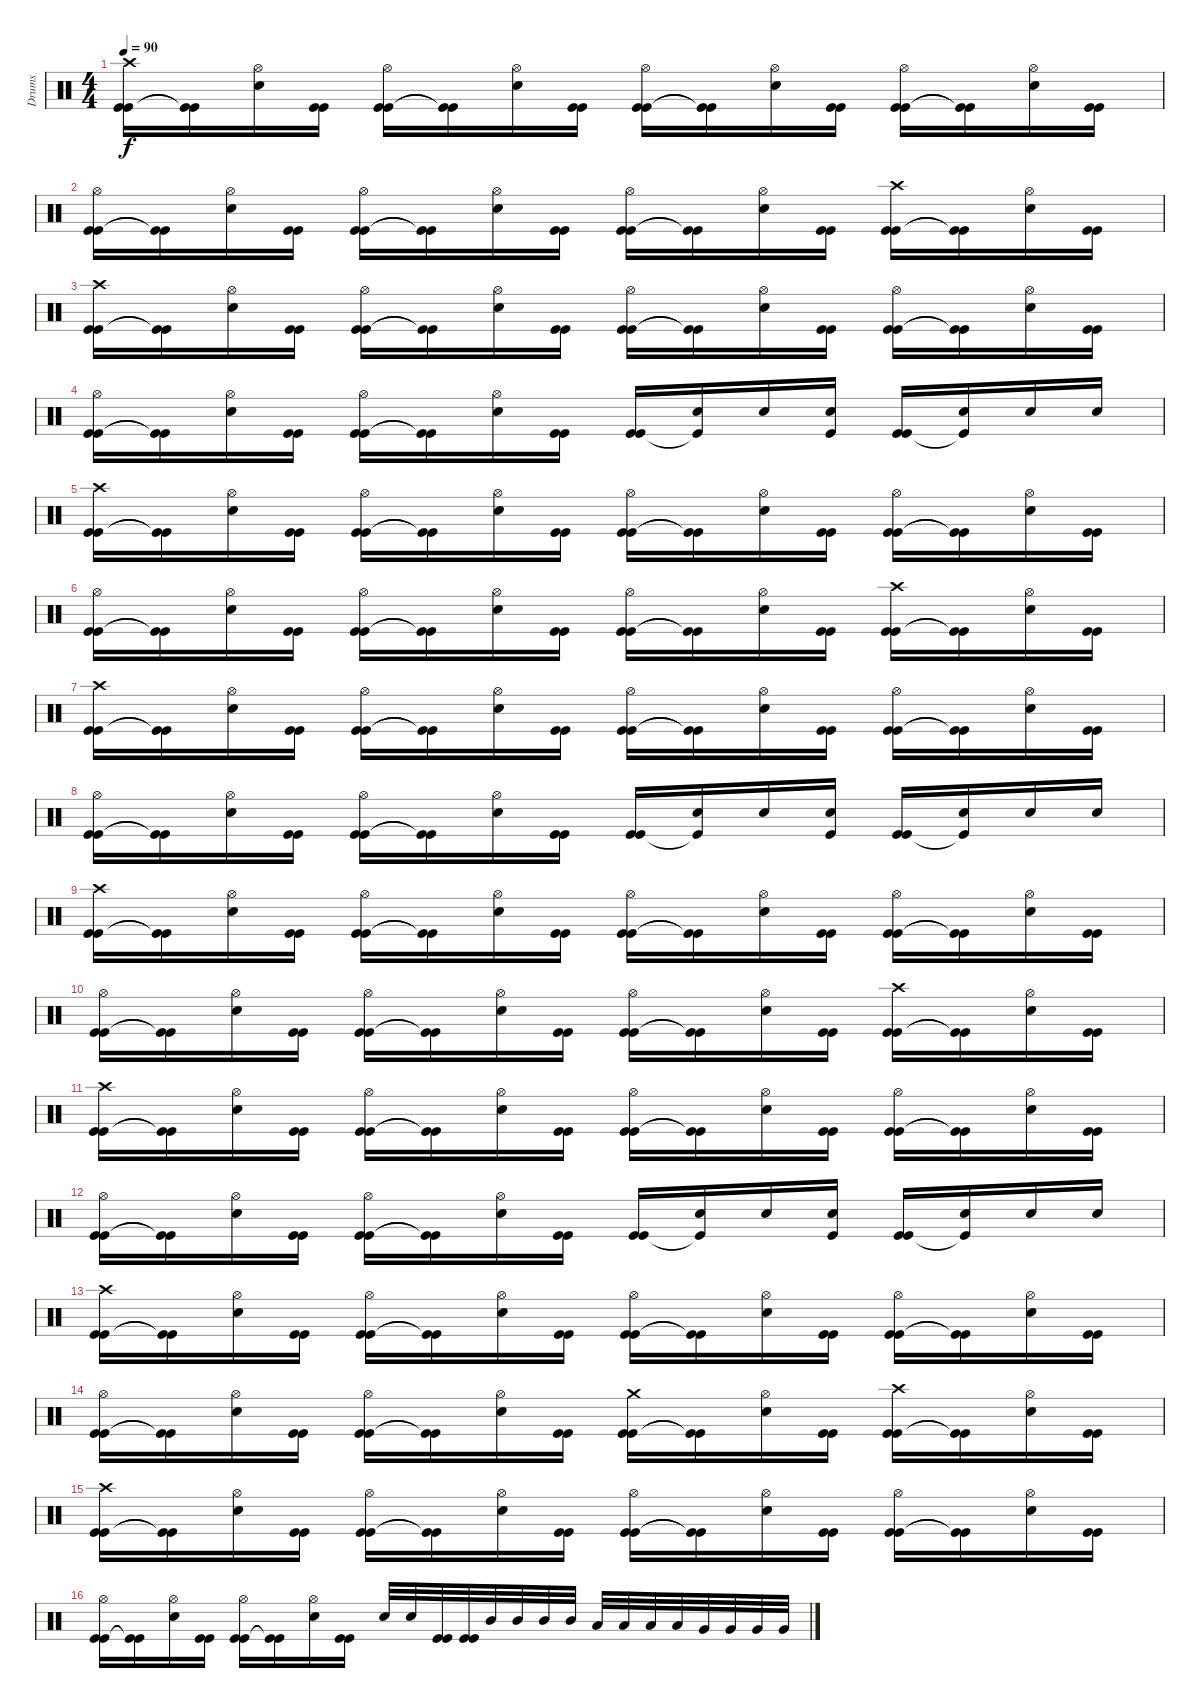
\track ("Drums" "Drums") {instrument percussion}
\staff {score}
\articulation defaults
\ts (4 4)
\tempo 90
\clef neutral
\ks c
("Kick (hit)" "Kick (hit)" "Crash high (hit)").16{dy f} ("Kick (hit)"{t} "Kick (hit)"{t}).16 ("Snare (hit) 2" "Hi-Hat (open)").16 ("Kick (hit)" "Kick (hit)").16 ("Kick (hit)" "Kick (hit)" "Hi-Hat (open)").16 ("Kick (hit)"{t} "Kick (hit)"{t}).16 ("Snare (hit) 2" "Hi-Hat (open)").16 ("Kick (hit)" "Kick (hit)").16 ("Kick (hit)" "Kick (hit)" "Hi-Hat (open)").16 ("Kick (hit)"{t} "Kick (hit)"{t}).16 ("Snare (hit) 2" "Hi-Hat (open)").16 ("Kick (hit)" "Kick (hit)").16 ("Kick (hit)" "Kick (hit)" "Hi-Hat (open)").16 ("Kick (hit)"{t} "Kick (hit)"{t}).16 ("Snare (hit) 2" "Hi-Hat (open)").16 ("Kick (hit)" "Kick (hit)").16 |
("Kick (hit)" "Kick (hit)" "Hi-Hat (open)").16 ("Kick (hit)"{t} "Kick (hit)"{t}).16 ("Snare (hit) 2" "Hi-Hat (open)").16 ("Kick (hit)" "Kick (hit)").16 ("Kick (hit)" "Kick (hit)" "Hi-Hat (open)").16 ("Kick (hit)"{t} "Kick (hit)"{t}).16 ("Snare (hit) 2" "Hi-Hat (open)").16 ("Kick (hit)" "Kick (hit)").16 ("Kick (hit)" "Kick (hit)" "Hi-Hat (open)").16 ("Kick (hit)"{t} "Kick (hit)"{t}).16 ("Snare (hit) 2" "Hi-Hat (open)").16 ("Kick (hit)" "Kick (hit)").16 ("Kick (hit)" "Kick (hit)" "Crash high (hit)").16 ("Kick (hit)"{t} "Kick (hit)"{t}).16 ("Snare (hit) 2" "Hi-Hat (open)").16 ("Kick (hit)" "Kick (hit)").16 |
("Kick (hit)" "Kick (hit)" "Crash high (hit)").16 ("Kick (hit)"{t} "Kick (hit)"{t}).16 ("Snare (hit) 2" "Hi-Hat (open)").16 ("Kick (hit)" "Kick (hit)").16 ("Kick (hit)" "Kick (hit)" "Hi-Hat (open)").16 ("Kick (hit)"{t} "Kick (hit)"{t}).16 ("Snare (hit) 2" "Hi-Hat (open)").16 ("Kick (hit)" "Kick (hit)").16 ("Kick (hit)" "Kick (hit)" "Hi-Hat (open)").16 ("Kick (hit)"{t} "Kick (hit)"{t}).16 ("Snare (hit) 2" "Hi-Hat (open)").16 ("Kick (hit)" "Kick (hit)").16 ("Kick (hit)" "Kick (hit)" "Hi-Hat (open)").16 ("Kick (hit)"{t} "Kick (hit)"{t}).16 ("Snare (hit) 2" "Hi-Hat (open)").16 ("Kick (hit)" "Kick (hit)").16 |
("Kick (hit)" "Kick (hit)" "Hi-Hat (open)").16 ("Kick (hit)"{t} "Kick (hit)"{t}).16 ("Snare (hit) 2" "Hi-Hat (open)").16 ("Kick (hit)" "Kick (hit)").16 ("Kick (hit)" "Kick (hit)" "Hi-Hat (open)").16 ("Kick (hit)"{t} "Kick (hit)"{t}).16 ("Snare (hit) 2" "Hi-Hat (open)").16 ("Kick (hit)" "Kick (hit)").16 ("Kick (hit)" "Kick (hit)").16 ("Snare (hit) 2" "Kick (hit)"{t}).16 "Snare (hit) 2".16 ("Snare (hit) 2" "Kick (hit)").16 ("Kick (hit)" "Kick (hit)").16 ("Snare (hit) 2" "Kick (hit)"{t}).16 "Snare (hit) 2".16 "Snare (hit) 2".16 |
("Kick (hit)" "Kick (hit)" "Crash high (hit)").16 ("Kick (hit)"{t} "Kick (hit)"{t}).16 ("Snare (hit) 2" "Hi-Hat (open)").16 ("Kick (hit)" "Kick (hit)").16 ("Kick (hit)" "Kick (hit)" "Hi-Hat (open)").16 ("Kick (hit)"{t} "Kick (hit)"{t}).16 ("Snare (hit) 2" "Hi-Hat (open)").16 ("Kick (hit)" "Kick (hit)").16 ("Kick (hit)" "Kick (hit)" "Hi-Hat (open)").16 ("Kick (hit)"{t} "Kick (hit)"{t}).16 ("Snare (hit) 2" "Hi-Hat (open)").16 ("Kick (hit)" "Kick (hit)").16 ("Kick (hit)" "Kick (hit)" "Hi-Hat (open)").16 ("Kick (hit)"{t} "Kick (hit)"{t}).16 ("Snare (hit) 2" "Hi-Hat (open)").16 ("Kick (hit)" "Kick (hit)").16 |
("Kick (hit)" "Kick (hit)" "Hi-Hat (open)").16 ("Kick (hit)"{t} "Kick (hit)"{t}).16 ("Snare (hit) 2" "Hi-Hat (open)").16 ("Kick (hit)" "Kick (hit)").16 ("Kick (hit)" "Kick (hit)" "Hi-Hat (open)").16 ("Kick (hit)"{t} "Kick (hit)"{t}).16 ("Snare (hit) 2" "Hi-Hat (open)").16 ("Kick (hit)" "Kick (hit)").16 ("Kick (hit)" "Kick (hit)" "Hi-Hat (open)").16 ("Kick (hit)"{t} "Kick (hit)"{t}).16 ("Snare (hit) 2" "Hi-Hat (open)").16 ("Kick (hit)" "Kick (hit)").16 ("Kick (hit)" "Kick (hit)" "Crash high (hit)").16 ("Kick (hit)"{t} "Kick (hit)"{t}).16 ("Snare (hit) 2" "Hi-Hat (open)").16 ("Kick (hit)" "Kick (hit)").16 |
("Kick (hit)" "Kick (hit)" "Crash high (hit)").16 ("Kick (hit)"{t} "Kick (hit)"{t}).16 ("Snare (hit) 2" "Hi-Hat (open)").16 ("Kick (hit)" "Kick (hit)").16 ("Kick (hit)" "Kick (hit)" "Hi-Hat (open)").16 ("Kick (hit)"{t} "Kick (hit)"{t}).16 ("Snare (hit) 2" "Hi-Hat (open)").16 ("Kick (hit)" "Kick (hit)").16 ("Kick (hit)" "Kick (hit)" "Hi-Hat (open)").16 ("Kick (hit)"{t} "Kick (hit)"{t}).16 ("Snare (hit) 2" "Hi-Hat (open)").16 ("Kick (hit)" "Kick (hit)").16 ("Kick (hit)" "Kick (hit)" "Hi-Hat (open)").16 ("Kick (hit)"{t} "Kick (hit)"{t}).16 ("Snare (hit) 2" "Hi-Hat (open)").16 ("Kick (hit)" "Kick (hit)").16 |
("Kick (hit)" "Kick (hit)" "Hi-Hat (open)").16 ("Kick (hit)"{t} "Kick (hit)"{t}).16 ("Snare (hit) 2" "Hi-Hat (open)").16 ("Kick (hit)" "Kick (hit)").16 ("Kick (hit)" "Kick (hit)" "Hi-Hat (open)").16 ("Kick (hit)"{t} "Kick (hit)"{t}).16 ("Snare (hit) 2" "Hi-Hat (open)").16 ("Kick (hit)" "Kick (hit)").16 ("Kick (hit)" "Kick (hit)").16 ("Snare (hit) 2" "Kick (hit)"{t}).16 "Snare (hit) 2".16 ("Snare (hit) 2" "Kick (hit)").16 ("Kick (hit)" "Kick (hit)").16 ("Snare (hit) 2" "Kick (hit)"{t}).16 "Snare (hit) 2".16 "Snare (hit) 2".16 |
("Kick (hit)" "Kick (hit)" "Crash high (hit)").16 ("Kick (hit)"{t} "Kick (hit)"{t}).16 ("Snare (hit) 2" "Hi-Hat (open)").16 ("Kick (hit)" "Kick (hit)").16 ("Kick (hit)" "Kick (hit)" "Hi-Hat (open)").16 ("Kick (hit)"{t} "Kick (hit)"{t}).16 ("Snare (hit) 2" "Hi-Hat (open)").16 ("Kick (hit)" "Kick (hit)").16 ("Kick (hit)" "Kick (hit)" "Hi-Hat (open)").16 ("Kick (hit)"{t} "Kick (hit)"{t}).16 ("Snare (hit) 2" "Hi-Hat (open)").16 ("Kick (hit)" "Kick (hit)").16 ("Kick (hit)" "Kick (hit)" "Hi-Hat (open)").16 ("Kick (hit)"{t} "Kick (hit)"{t}).16 ("Snare (hit) 2" "Hi-Hat (open)").16 ("Kick (hit)" "Kick (hit)").16 |
("Kick (hit)" "Kick (hit)" "Hi-Hat (open)").16 ("Kick (hit)"{t} "Kick (hit)"{t}).16 ("Snare (hit) 2" "Hi-Hat (open)").16 ("Kick (hit)" "Kick (hit)").16 ("Kick (hit)" "Kick (hit)" "Hi-Hat (open)").16 ("Kick (hit)"{t} "Kick (hit)"{t}).16 ("Snare (hit) 2" "Hi-Hat (open)").16 ("Kick (hit)" "Kick (hit)").16 ("Kick (hit)" "Kick (hit)" "Hi-Hat (open)").16 ("Kick (hit)"{t} "Kick (hit)"{t}).16 ("Snare (hit) 2" "Hi-Hat (open)").16 ("Kick (hit)" "Kick (hit)").16 ("Kick (hit)" "Kick (hit)" "Crash high (hit)").16 ("Kick (hit)"{t} "Kick (hit)"{t}).16 ("Snare (hit) 2" "Hi-Hat (open)").16 ("Kick (hit)" "Kick (hit)").16 |
("Kick (hit)" "Kick (hit)" "Crash high (hit)").16 ("Kick (hit)"{t} "Kick (hit)"{t}).16 ("Snare (hit) 2" "Hi-Hat (open)").16 ("Kick (hit)" "Kick (hit)").16 ("Kick (hit)" "Kick (hit)" "Hi-Hat (open)").16 ("Kick (hit)"{t} "Kick (hit)"{t}).16 ("Snare (hit) 2" "Hi-Hat (open)").16 ("Kick (hit)" "Kick (hit)").16 ("Kick (hit)" "Kick (hit)" "Hi-Hat (open)").16 ("Kick (hit)"{t} "Kick (hit)"{t}).16 ("Snare (hit) 2" "Hi-Hat (open)").16 ("Kick (hit)" "Kick (hit)").16 ("Kick (hit)" "Kick (hit)" "Hi-Hat (open)").16 ("Kick (hit)"{t} "Kick (hit)"{t}).16 ("Snare (hit) 2" "Hi-Hat (open)").16 ("Kick (hit)" "Kick (hit)").16 |
("Kick (hit)" "Kick (hit)" "Hi-Hat (open)").16 ("Kick (hit)"{t} "Kick (hit)"{t}).16 ("Snare (hit) 2" "Hi-Hat (open)").16 ("Kick (hit)" "Kick (hit)").16 ("Kick (hit)" "Kick (hit)" "Hi-Hat (open)").16 ("Kick (hit)"{t} "Kick (hit)"{t}).16 ("Snare (hit) 2" "Hi-Hat (open)").16 ("Kick (hit)" "Kick (hit)").16 ("Kick (hit)" "Kick (hit)").16 ("Snare (hit) 2" "Kick (hit)"{t}).16 "Snare (hit) 2".16 ("Snare (hit) 2" "Kick (hit)").16 ("Kick (hit)" "Kick (hit)").16 ("Snare (hit) 2" "Kick (hit)"{t}).16 "Snare (hit) 2".16 "Snare (hit) 2".16 |
("Kick (hit)" "Kick (hit)" "Crash high (hit)").16 ("Kick (hit)"{t} "Kick (hit)"{t}).16 ("Snare (hit) 2" "Hi-Hat (open)").16 ("Kick (hit)" "Kick (hit)").16 ("Kick (hit)" "Kick (hit)" "Hi-Hat (open)").16 ("Kick (hit)"{t} "Kick (hit)"{t}).16 ("Snare (hit) 2" "Hi-Hat (open)").16 ("Kick (hit)" "Kick (hit)").16 ("Kick (hit)" "Kick (hit)" "Hi-Hat (open)").16 ("Kick (hit)"{t} "Kick (hit)"{t}).16 ("Snare (hit) 2" "Hi-Hat (open)").16 ("Kick (hit)" "Kick (hit)").16 ("Kick (hit)" "Kick (hit)" "Hi-Hat (open)").16 ("Kick (hit)"{t} "Kick (hit)"{t}).16 ("Snare (hit) 2" "Hi-Hat (open)").16 ("Kick (hit)" "Kick (hit)").16 |
("Kick (hit)" "Kick (hit)" "Hi-Hat (open)").16 ("Kick (hit)"{t} "Kick (hit)"{t}).16 ("Snare (hit) 2" "Hi-Hat (open)").16 ("Kick (hit)" "Kick (hit)").16 ("Kick (hit)" "Kick (hit)" "Hi-Hat (open)").16 ("Kick (hit)"{t} "Kick (hit)"{t}).16 ("Snare (hit) 2" "Hi-Hat (open)").16 ("Kick (hit)" "Kick (hit)").16 ("Kick (hit)" "Kick (hit)" "Crash medium (hit)").16 ("Kick (hit)"{t} "Kick (hit)"{t}).16 ("Snare (hit) 2" "Hi-Hat (open)").16 ("Kick (hit)" "Kick (hit)").16 ("Kick (hit)" "Kick (hit)" "Crash high (hit)").16 ("Kick (hit)"{t} "Kick (hit)"{t}).16 ("Snare (hit) 2" "Hi-Hat (open)").16 ("Kick (hit)" "Kick (hit)").16 |
("Kick (hit)" "Kick (hit)" "Crash high (hit)").16 ("Kick (hit)"{t} "Kick (hit)"{t}).16 ("Snare (hit) 2" "Hi-Hat (open)").16 ("Kick (hit)" "Kick (hit)").16 ("Kick (hit)" "Kick (hit)" "Hi-Hat (open)").16 ("Kick (hit)"{t} "Kick (hit)"{t}).16 ("Snare (hit) 2" "Hi-Hat (open)").16 ("Kick (hit)" "Kick (hit)").16 ("Kick (hit)" "Kick (hit)" "Hi-Hat (open)").16 ("Kick (hit)"{t} "Kick (hit)"{t}).16 ("Snare (hit) 2" "Hi-Hat (open)").16 ("Kick (hit)" "Kick (hit)").16 ("Kick (hit)" "Kick (hit)" "Hi-Hat (open)").16 ("Kick (hit)"{t} "Kick (hit)"{t}).16 ("Snare (hit) 2" "Hi-Hat (open)").16 ("Kick (hit)" "Kick (hit)").16 |
("Kick (hit)" "Kick (hit)" "Hi-Hat (open)").16 ("Kick (hit)"{t} "Kick (hit)"{t}).16 ("Snare (hit) 2" "Hi-Hat (open)").16 ("Kick (hit)" "Kick (hit)").16 ("Kick (hit)" "Kick (hit)" "Hi-Hat (open)").16 ("Kick (hit)"{t} "Kick (hit)"{t}).16 ("Snare (hit) 2" "Hi-Hat (open)").16 ("Kick (hit)" "Kick (hit)").16 "Snare (hit) 2".32 "Snare (hit) 2".32 ("Kick (hit)" "Kick (hit)").32 ("Kick (hit)" "Kick (hit)").32 "Mid Tom (hit)".32 "Mid Tom (hit)".32 "Mid Tom (hit)".32 "Mid Tom (hit)".32 "Low Tom (hit)".32 "Low Tom (hit)".32 "Low Tom (hit)".32 "Low Tom (hit)".32 "Very Low Tom (hit)".32 "Very Low Tom (hit)".32 "Very Low Tom (hit)".32 "Very Low Tom (hit)".32
